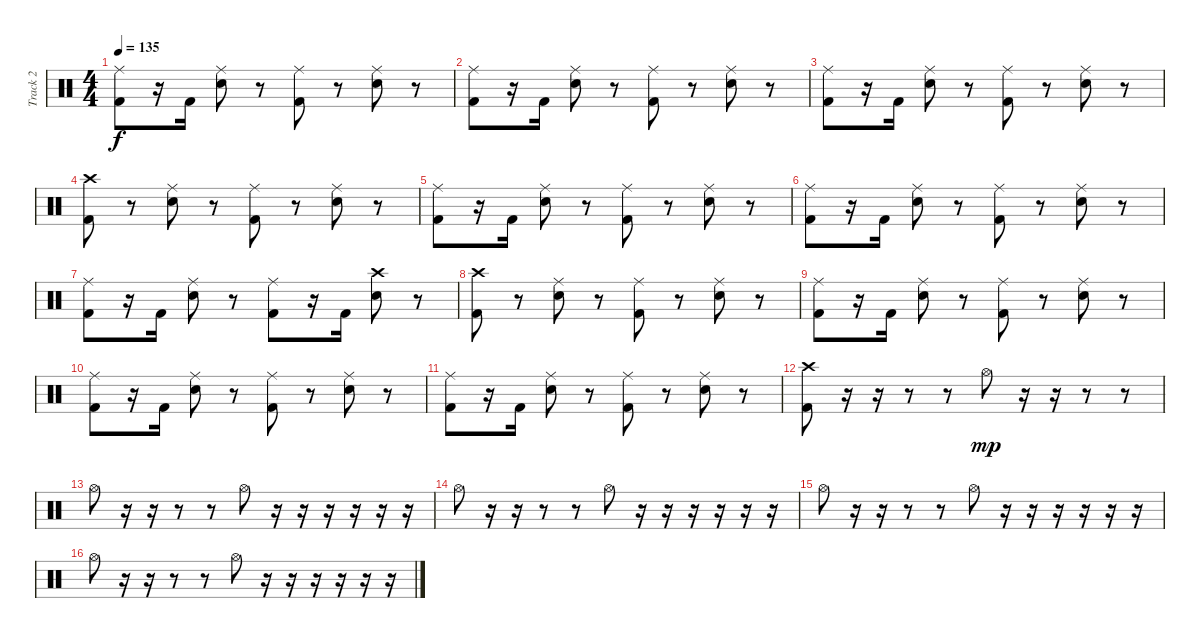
\track ("Track 2" "Track 2") {instrument percussion}
\staff {score}
\articulation defaults
\ts (4 4)
\tempo 135
\clef neutral
\ks c
("Ride (middle)" "Kick (hit) 2").8{dy f} r.16 "Kick (hit) 2".16 ("Ride (middle)" "Electric Snare (hit)").8 r.8 ("Ride (middle)" "Kick (hit) 2").8 r.8 ("Ride (middle)" "Electric Snare (hit)").8 r.8 |
("Ride (middle)" "Kick (hit) 2").8 r.16 "Kick (hit) 2".16 ("Ride (middle)" "Electric Snare (hit)").8 r.8 ("Ride (middle)" "Kick (hit) 2").8 r.8 ("Ride (middle)" "Electric Snare (hit)").8 r.8 |
("Ride (middle)" "Kick (hit) 2").8 r.16 "Kick (hit) 2".16 ("Ride (middle)" "Electric Snare (hit)").8 r.8 ("Ride (middle)" "Kick (hit) 2").8 r.8 ("Ride (middle)" "Electric Snare (hit)").8 r.8 |
("Crash high (hit)" "Kick (hit) 2").8 r.8 ("Ride (middle)" "Electric Snare (hit)").8 r.8 ("Ride (middle)" "Kick (hit) 2").8 r.8 ("Ride (middle)" "Electric Snare (hit)").8 r.8 |
("Ride (middle)" "Kick (hit) 2").8 r.16 "Kick (hit) 2".16 ("Ride (middle)" "Electric Snare (hit)").8 r.8 ("Ride (middle)" "Kick (hit) 2").8 r.8 ("Ride (middle)" "Electric Snare (hit)").8 r.8 |
("Ride (middle)" "Kick (hit) 2").8 r.16 "Kick (hit) 2".16 ("Ride (middle)" "Electric Snare (hit)").8 r.8 ("Ride (middle)" "Kick (hit) 2").8 r.8 ("Ride (middle)" "Electric Snare (hit)").8 r.8 |
("Ride (middle)" "Kick (hit) 2").8 r.16 "Kick (hit) 2".16 ("Ride (middle)" "Electric Snare (hit)").8 r.8 ("Ride (middle)" "Kick (hit) 2").8 r.16 "Kick (hit) 2".16 ("Crash high (hit)" "Electric Snare (hit)").8 r.8 |
("Crash high (hit)" "Kick (hit) 2").8 r.8 ("Ride (middle)" "Electric Snare (hit)").8 r.8 ("Ride (middle)" "Kick (hit) 2").8 r.8 ("Ride (middle)" "Electric Snare (hit)").8 r.8 |
("Ride (middle)" "Kick (hit) 2").8 r.16 "Kick (hit) 2".16 ("Ride (middle)" "Electric Snare (hit)").8 r.8 ("Ride (middle)" "Kick (hit) 2").8 r.8 ("Ride (middle)" "Electric Snare (hit)").8 r.8 |
("Ride (middle)" "Kick (hit) 2").8 r.16 "Kick (hit) 2".16 ("Ride (middle)" "Electric Snare (hit)").8 r.8 ("Ride (middle)" "Kick (hit) 2").8 r.8 ("Ride (middle)" "Electric Snare (hit)").8 r.8 |
("Ride (middle)" "Kick (hit) 2").8 r.16 "Kick (hit) 2".16 ("Ride (middle)" "Electric Snare (hit)").8 r.8 ("Ride (middle)" "Kick (hit) 2").8 r.8 ("Ride (middle)" "Electric Snare (hit)").8 r.8 |
("Crash high (hit)" "Kick (hit) 2").8 r.16 r.16 r.8 r.8 "Hi-Hat (open)".8{dy mp} r.16 r.16 r.8 r.8 |
"Hi-Hat (open)".8 r.16 r.16 r.8 r.8 "Hi-Hat (open)".8 r.16 r.16 r.16 r.16 r.16 r.16 |
"Hi-Hat (open)".8 r.16 r.16 r.8 r.8 "Hi-Hat (open)".8 r.16 r.16 r.16 r.16 r.16 r.16 |
"Hi-Hat (open)".8 r.16 r.16 r.8 r.8 "Hi-Hat (open)".8 r.16 r.16 r.16 r.16 r.16 r.16 |
"Hi-Hat (open)".8 r.16 r.16 r.8 r.8 "Hi-Hat (open)".8 r.16 r.16 r.16 r.16 r.16 r.16
